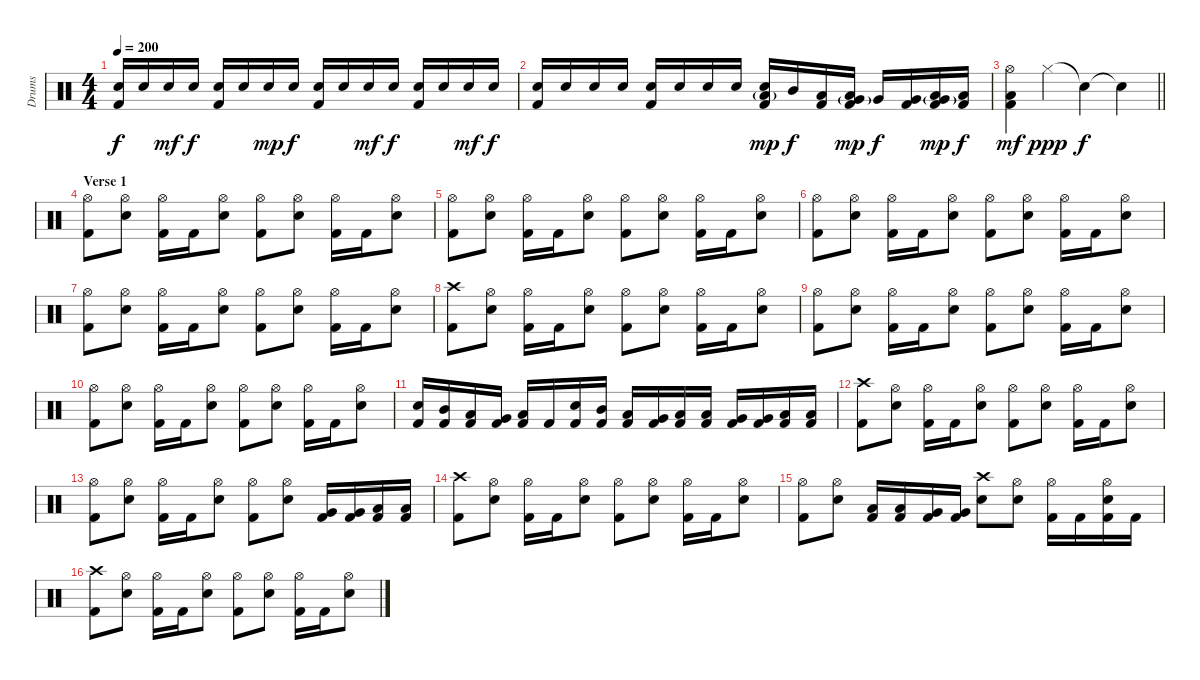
\track ("Drums" "Drums") {instrument percussion}
\staff {score}
\articulation defaults
\ts (4 4)
\tempo 200
\clef neutral
\ks c
("Snare (hit) 2" "Kick (hit) 2").16{dy f} "Snare (hit) 2".16 "Snare (hit) 2".16{dy mf} "Snare (hit) 2".16{dy f} ("Snare (hit) 2" "Kick (hit) 2").16 "Snare (hit) 2".16 "Snare (hit) 2".16{dy mp} "Snare (hit) 2".16{dy f} ("Snare (hit) 2" "Kick (hit) 2").16 "Snare (hit) 2".16 "Snare (hit) 2".16{dy mf} "Snare (hit) 2".16{dy f} ("Snare (hit) 2" "Kick (hit) 2").16 "Snare (hit) 2".16 "Snare (hit) 2".16{dy mf} "Snare (hit) 2".16{dy f} |
("Snare (hit) 2" "Kick (hit) 2").16 "Snare (hit) 2".16 "Snare (hit) 2".16 "Snare (hit) 2".16 ("Snare (hit) 2" "Kick (hit) 2").16 "Snare (hit) 2".16 "Snare (hit) 2".16 "Snare (hit) 2".16 ("Low Tom (hit)"{g} "Snare (hit) 2" "Kick (hit) 2").16{dy mp} "Mid Tom (hit)".16{dy f} ("Low Tom (hit)" "Kick (hit) 2").16 ("Very Low Tom (hit)"{g} "Low Tom (hit)" "Kick (hit) 2").16{dy mp} "Very Low Tom (hit)".16{dy f} ("Very Low Tom (hit)" "Kick (hit) 2").16 ("Very Low Tom (hit)"{g} "Low Floor Tom (hit)" "Kick (hit) 2").16{dy mp} ("Low Floor Tom (hit)" "Kick (hit) 2").16{dy f} |
\barLineRight lightlight
("Hi-Hat (open)" "Low Floor Tom (hit)" "Kick (hit) 2").4{dy mf} "Hi-Hat (closed)".4{dy ppp} "Snare (hit)"{t}.4{dy f} "Snare (hit)"{t}.4 |
\section ("" "Verse 1")
("Hi-Hat (open)" "Kick (hit) 2").8 ("Hi-Hat (open)" "Snare (hit) 2").8 ("Hi-Hat (open)" "Kick (hit) 2").16 "Kick (hit) 2".16 ("Hi-Hat (open)" "Snare (hit) 2").8 ("Hi-Hat (open)" "Kick (hit) 2").8 ("Hi-Hat (open)" "Snare (hit) 2").8 ("Hi-Hat (open)" "Kick (hit) 2").16 "Kick (hit) 2".16 ("Hi-Hat (open)" "Snare (hit) 2").8 |
("Hi-Hat (open)" "Kick (hit) 2").8 ("Hi-Hat (open)" "Snare (hit) 2").8 ("Hi-Hat (open)" "Kick (hit) 2").16 "Kick (hit) 2".16 ("Hi-Hat (open)" "Snare (hit) 2").8 ("Hi-Hat (open)" "Kick (hit) 2").8 ("Hi-Hat (open)" "Snare (hit) 2").8 ("Hi-Hat (open)" "Kick (hit) 2").16 "Kick (hit) 2".16 ("Hi-Hat (open)" "Snare (hit) 2").8 |
("Hi-Hat (open)" "Kick (hit) 2").8 ("Hi-Hat (open)" "Snare (hit) 2").8 ("Hi-Hat (open)" "Kick (hit) 2").16 "Kick (hit) 2".16 ("Hi-Hat (open)" "Snare (hit) 2").8 ("Hi-Hat (open)" "Kick (hit) 2").8 ("Hi-Hat (open)" "Snare (hit) 2").8 ("Hi-Hat (open)" "Kick (hit) 2").16 "Kick (hit) 2".16 ("Hi-Hat (open)" "Snare (hit) 2").8 |
("Hi-Hat (open)" "Kick (hit) 2").8 ("Hi-Hat (open)" "Snare (hit) 2").8 ("Hi-Hat (open)" "Kick (hit) 2").16 "Kick (hit) 2".16 ("Hi-Hat (open)" "Snare (hit) 2").8 ("Hi-Hat (open)" "Kick (hit) 2").8 ("Hi-Hat (open)" "Snare (hit) 2").8 ("Hi-Hat (open)" "Kick (hit) 2").16 "Kick (hit) 2".16 ("Hi-Hat (open)" "Snare (hit) 2").8 |
("Crash high (hit)" "Kick (hit) 2").8 ("Hi-Hat (open)" "Snare (hit) 2").8 ("Hi-Hat (open)" "Kick (hit) 2").16 "Kick (hit) 2".16 ("Hi-Hat (open)" "Snare (hit) 2").8 ("Hi-Hat (open)" "Kick (hit) 2").8 ("Hi-Hat (open)" "Snare (hit) 2").8 ("Hi-Hat (open)" "Kick (hit) 2").16 "Kick (hit) 2".16 ("Hi-Hat (open)" "Snare (hit) 2").8 |
("Hi-Hat (open)" "Kick (hit) 2").8 ("Hi-Hat (open)" "Snare (hit) 2").8 ("Hi-Hat (open)" "Kick (hit) 2").16 "Kick (hit) 2".16 ("Hi-Hat (open)" "Snare (hit) 2").8 ("Hi-Hat (open)" "Kick (hit) 2").8 ("Hi-Hat (open)" "Snare (hit) 2").8 ("Hi-Hat (open)" "Kick (hit) 2").16 "Kick (hit) 2".16 ("Hi-Hat (open)" "Snare (hit) 2").8 |
("Hi-Hat (open)" "Kick (hit) 2").8 ("Hi-Hat (open)" "Snare (hit) 2").8 ("Hi-Hat (open)" "Kick (hit) 2").16 "Kick (hit) 2".16 ("Hi-Hat (open)" "Snare (hit) 2").8 ("Hi-Hat (open)" "Kick (hit) 2").8 ("Hi-Hat (open)" "Snare (hit) 2").8 ("Hi-Hat (open)" "Kick (hit) 2").16 "Kick (hit) 2".16 ("Hi-Hat (open)" "Snare (hit) 2").8 |
("Snare (hit) 2" "Kick (hit) 2").16 ("Mid Tom (hit)" "Kick (hit) 2").16 ("Low Tom (hit)" "Kick (hit) 2").16 ("Very Low Tom (hit)" "Kick (hit) 2").16 ("Low Floor Tom (hit)" "Kick (hit) 2").16 "Kick (hit) 2".16 ("Snare (hit) 2" "Kick (hit) 2").16 ("Mid Tom (hit)" "Kick (hit) 2").16 ("Low Tom (hit)" "Kick (hit) 2").16 ("Very Low Tom (hit)" "Kick (hit) 2").16 ("Low Tom (hit)" "Kick (hit) 2").16 ("Low Tom (hit)" "Kick (hit) 2").16 ("Very Low Tom (hit)" "Kick (hit) 2").16 ("Very Low Tom (hit)" "Kick (hit) 2").16 ("Low Floor Tom (hit)" "Kick (hit) 2").16 ("Low Floor Tom (hit)" "Kick (hit) 2").16 |
("Crash high (hit)" "Kick (hit) 2").8 ("Hi-Hat (open)" "Snare (hit) 2").8 ("Hi-Hat (open)" "Kick (hit) 2").16 "Kick (hit) 2".16 ("Hi-Hat (open)" "Snare (hit) 2").8 ("Hi-Hat (open)" "Kick (hit) 2").8 ("Hi-Hat (open)" "Snare (hit) 2").8 ("Hi-Hat (open)" "Kick (hit) 2").16 "Kick (hit) 2".16 ("Hi-Hat (open)" "Snare (hit) 2").8 |
("Hi-Hat (open)" "Kick (hit) 2").8 ("Hi-Hat (open)" "Snare (hit) 2").8 ("Hi-Hat (open)" "Kick (hit) 2").16 "Kick (hit) 2".16 ("Hi-Hat (open)" "Snare (hit) 2").8 ("Hi-Hat (open)" "Kick (hit) 2").8 ("Hi-Hat (open)" "Snare (hit) 2").8 ("Very Low Tom (hit)" "Kick (hit) 2").16 ("Very Low Tom (hit)" "Kick (hit) 2").16 ("Low Floor Tom (hit)" "Kick (hit) 2").16 ("Low Floor Tom (hit)" "Kick (hit) 2").16 |
("Crash high (hit)" "Kick (hit) 2").8 ("Hi-Hat (open)" "Snare (hit) 2").8 ("Hi-Hat (open)" "Kick (hit) 2").16 "Kick (hit) 2".16 ("Hi-Hat (open)" "Snare (hit) 2").8 ("Hi-Hat (open)" "Kick (hit) 2").8 ("Hi-Hat (open)" "Snare (hit) 2").8 ("Hi-Hat (open)" "Kick (hit) 2").16 "Kick (hit) 2".16 ("Hi-Hat (open)" "Snare (hit) 2").8 |
("Hi-Hat (open)" "Kick (hit) 2").8 ("Hi-Hat (open)" "Snare (hit) 2").8 ("Low Tom (hit)" "Kick (hit) 2").16 ("Low Tom (hit)" "Kick (hit) 2").16 ("Very Low Tom (hit)" "Kick (hit) 2").16 ("Very Low Tom (hit)" "Kick (hit) 2").16 ("Crash high (hit)" "Snare (hit) 2").8 ("Hi-Hat (open)" "Snare (hit) 2").8 ("Hi-Hat (open)" "Kick (hit) 2").16 "Kick (hit) 2".16 ("Hi-Hat (open)" "Snare (hit) 2" "Kick (hit) 2").16 "Kick (hit) 2".16 |
("Crash high (hit)" "Kick (hit) 2").8 ("Hi-Hat (open)" "Snare (hit) 2").8 ("Hi-Hat (open)" "Kick (hit) 2").16 "Kick (hit) 2".16 ("Hi-Hat (open)" "Snare (hit) 2").8 ("Hi-Hat (open)" "Kick (hit) 2").8 ("Hi-Hat (open)" "Snare (hit) 2").8 ("Hi-Hat (open)" "Kick (hit) 2").16 "Kick (hit) 2".16 ("Hi-Hat (open)" "Snare (hit) 2").8
